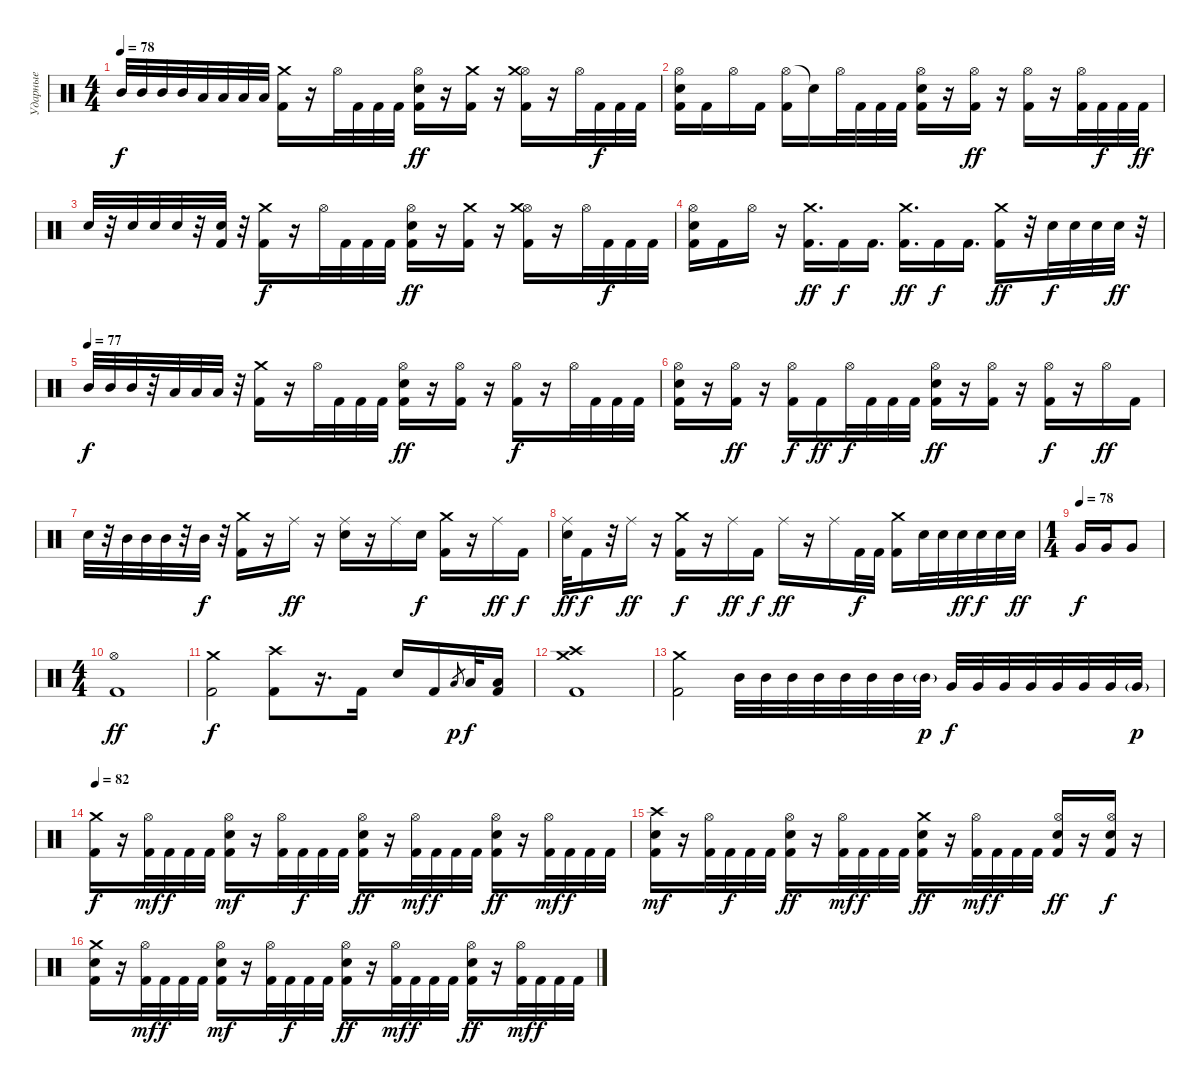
\track ("Ударные" "Ударные") {instrument percussion}
\staff {score}
\articulation defaults
\ts (4 4)
\tempo 78
\clef neutral
\ks c "Mid Tom (hit)".32{dy f} "Mid Tom (hit)".32 "Mid Tom (hit)".32 "Mid Tom (hit)".32 "Low Tom (hit)".32 "Low Tom (hit)".32 "Low Tom (hit)".32 "Low Tom (hit)".32
("Crash medium (hit)" "Kick (hit) 2").16 r.16 "Hi-Hat (open)".32 "Kick (hit) 2".32 "Kick (hit) 2".32 "Kick (hit) 2".32 ("Hi-Hat (open)" "Electric Snare (hit)" "Kick (hit) 2").16{dy ff} r.16 ("Crash medium (hit)" "Kick (hit) 2").16 r.16 ("Hi-Hat (open)" "Crash medium (hit)" "Kick (hit) 2").16 r.16 "Hi-Hat (open)".32 "Kick (hit) 2".32{dy f} "Kick (hit) 2".32 "Kick (hit) 2".32 |
("Hi-Hat (open)" "Electric Snare (hit)" "Kick (hit) 2").16 "Kick (hit) 2".16 "Hi-Hat (open)".16 "Kick (hit) 2".16 ("Hi-Hat (open)" "Kick (hit) 2").16 "Snare (hit)"{t}.16 "Hi-Hat (open)".32 "Kick (hit) 2".32 "Kick (hit) 2".32 "Kick (hit) 2".32 ("Hi-Hat (open)" "Electric Snare (hit)" "Kick (hit) 2").16 r.16 ("Hi-Hat (open)" "Kick (hit) 2").16{dy ff} r.16 ("Hi-Hat (open)" "Kick (hit) 2").16 r.16 ("Hi-Hat (open)" "Kick (hit) 2").32 "Kick (hit) 2".32{dy f} "Kick (hit) 2".32 "Kick (hit) 2".32{dy ff} |
"Electric Snare (hit)".32 r.32 "Electric Snare (hit)".32 "Electric Snare (hit)".32 "Electric Snare (hit)".32 r.32 ("Electric Snare (hit)" "Kick (hit) 2").32 r.32 ("Crash medium (hit)" "Kick (hit) 2").16{dy f} r.16 "Hi-Hat (open)".32 "Kick (hit) 2".32 "Kick (hit) 2".32 "Kick (hit) 2".32 ("Hi-Hat (open)" "Electric Snare (hit)" "Kick (hit) 2").16{dy ff} r.16 ("Crash medium (hit)" "Kick (hit) 2").16 r.16 ("Hi-Hat (open)" "Crash medium (hit)" "Kick (hit) 2").16 r.16 "Hi-Hat (open)".32 "Kick (hit) 2".32{dy f} "Kick (hit) 2".32 "Kick (hit) 2".32 |
("Hi-Hat (open)" "Electric Snare (hit)" "Kick (hit) 2").16 "Kick (hit) 2".16 "Hi-Hat (open)".16 r.16 ("Crash medium (hit)" "Kick (hit) 2").16{d dy ff} "Kick (hit) 2".16{dy f} "Kick (hit) 2".16{d} ("Crash medium (hit)" "Kick (hit) 2").16{d dy ff} "Kick (hit) 2".16{dy f} "Kick (hit) 2".16{d} ("Crash medium (hit)" "Kick (hit) 2").16{dy ff} r.32 "Electric Snare (hit)".32{dy f} "Electric Snare (hit)".32 "Electric Snare (hit)".32 "Electric Snare (hit)".32{dy ff} r.32 |
\tempo (77)
"Mid Tom (hit)".32{dy f} "Mid Tom (hit)".32 "Mid Tom (hit)".32 r.32 "Low Tom (hit)".32 "Low Tom (hit)".32 "Low Tom (hit)".32 r.32 ("Crash medium (hit)" "Kick (hit) 2").16 r.16 "Hi-Hat (open)".32 "Kick (hit) 2".32 "Kick (hit) 2".32 "Kick (hit) 2".32 ("Hi-Hat (open)" "Electric Snare (hit)" "Kick (hit) 2").16{dy ff} r.16 ("Hi-Hat (open)" "Kick (hit) 2").16 r.16 ("Hi-Hat (open)" "Kick (hit) 2").16{dy f} r.16 "Hi-Hat (open)".32 "Kick (hit) 2".32 "Kick (hit) 2".32 "Kick (hit) 2".32 |
("Hi-Hat (open)" "Electric Snare (hit)" "Kick (hit) 2").16 r.16 ("Hi-Hat (open)" "Kick (hit) 2").16{dy ff} r.16 ("Hi-Hat (open)" "Kick (hit) 2").16{dy f} "Kick (hit) 2".16{dy ff} "Hi-Hat (open)".32{dy f} "Kick (hit) 2".32 "Kick (hit) 2".32 "Kick (hit) 2".32 ("Hi-Hat (open)" "Electric Snare (hit)" "Kick (hit) 2").16{dy ff} r.16 ("Hi-Hat (open)" "Kick (hit) 2").16 r.16 ("Hi-Hat (open)" "Kick (hit) 2").16{dy f} r.16 "Hi-Hat (open)".16{dy ff} "Kick (hit) 2".16 |
"Electric Snare (hit)".32 r.32 "Mid Tom (hit)".32 "Mid Tom (hit)".32 "Mid Tom (hit)".32 r.32 "Mid Tom (hit)".32{dy f} r.32 ("Crash medium (hit)" "Kick (hit) 2").16 r.16 "Ride (middle)".16{dy ff} r.16 ("Ride (middle)" "Electric Snare (hit)").16 r.16 "Ride (middle)".16 "Electric Snare (hit)".16{dy f} ("Crash medium (hit)" "Kick (hit) 2").16 r.16 "Ride (middle)".16{dy ff} "Kick (hit) 2".16{dy f} |
("Ride (middle)" "Electric Snare (hit)").32{dy ff} "Kick (hit) 2".16{dy f} r.32 "Ride (middle)".16{dy ff} r.16 ("Crash medium (hit)" "Kick (hit) 2").16{dy f} r.16 "Ride (middle)".16{dy ff} "Kick (hit) 2".16{dy f} "Ride (middle)".16{dy ff} r.16 "Ride (middle)".16 "Kick (hit) 2".32{dy f} "Kick (hit) 2".32 ("Crash medium (hit)" "Kick (hit) 2").16 "Electric Snare (hit)".32 "Electric Snare (hit)".32 "Electric Snare (hit)".32{dy ff} "Electric Snare (hit)".32{dy f} "Electric Snare (hit)".32 "Electric Snare (hit)".32{dy ff} |
\ts (1 4)
\tempo (78)
"Very Low Tom (hit)".16{dy f} "Very Low Tom (hit)".16 "Very Low Tom (hit)".8 |
\ts (4 4)
("Hi-Hat (open)" "Kick (hit) 2").1{dy ff} |
("Crash medium (hit)" "Kick (hit) 2").2{dy f} ("Crash high (hit)" "Kick (hit) 2").8 r.16{d} "Kick (hit) 2".16 "Electric Snare (hit)".16 "Kick (hit) 2".16 "Low Tom (hit)".8{gr dy p} "Low Tom (hit)".32{dy f} ("Low Floor Tom (hit)" "Kick (hit) 2").16 |
("Crash medium (hit)" "Crash high (hit)" "Kick (hit) 2").1 |
("Crash medium (hit)" "Kick (hit) 2").2 "Mid Tom (hit)".32 "Mid Tom (hit)".32 "Mid Tom (hit)".32 "Mid Tom (hit)".32 "Mid Tom (hit)".32 "Mid Tom (hit)".32 "Mid Tom (hit)".32 "Mid Tom (hit)"{g}.32{dy p} "Very Low Tom (hit)".32{dy f} "Very Low Tom (hit)".32 "Very Low Tom (hit)".32 "Very Low Tom (hit)".32 "Very Low Tom (hit)".32 "Very Low Tom (hit)".32 "Very Low Tom (hit)".32 "Very Low Tom (hit)"{g}.32{dy p} |
\tempo 82
("Crash medium (hit)" "Kick (hit) 2").16{dy f} r.16 ("Hi-Hat (open)" "Kick (hit) 2").32{dy mf} "Kick (hit) 2".32{dy f} "Kick (hit) 2".32 "Kick (hit) 2".32 ("Hi-Hat (open)" "Electric Snare (hit)" "Kick (hit) 2").16{dy mf} r.16 ("Hi-Hat (open)" "Kick (hit) 2").32 "Kick (hit) 2".32{dy f} "Kick (hit) 2".32 "Kick (hit) 2".32 ("Hi-Hat (open)" "Electric Snare (hit)" "Kick (hit) 2").16{dy ff} r.16 ("Hi-Hat (open)" "Kick (hit) 2").32{dy mf} "Kick (hit) 2".32{dy f} "Kick (hit) 2".32 "Kick (hit) 2".32 ("Hi-Hat (open)" "Electric Snare (hit)" "Kick (hit) 2").16{dy ff} r.16 ("Hi-Hat (open)" "Kick (hit) 2").32{dy mf} "Kick (hit) 2".32{dy f} "Kick (hit) 2".32 "Kick (hit) 2".32 |
("Crash high (hit)" "Electric Snare (hit)" "Kick (hit) 2").16{dy mf} r.16 ("Hi-Hat (open)" "Kick (hit) 2").32 "Kick (hit) 2".32{dy f} "Kick (hit) 2".32 "Kick (hit) 2".32 ("Hi-Hat (open)" "Electric Snare (hit)" "Kick (hit) 2").16{dy ff} r.16 ("Hi-Hat (open)" "Kick (hit) 2").32{dy mf} "Kick (hit) 2".32{dy f} "Kick (hit) 2".32 "Kick (hit) 2".32 ("Crash medium (hit)" "Electric Snare (hit)" "Kick (hit) 2").16{dy ff} r.16 ("Hi-Hat (open)" "Kick (hit) 2").32{dy mf} "Kick (hit) 2".32{dy f} "Kick (hit) 2".32 "Kick (hit) 2".32 ("Hi-Hat (open)" "Electric Snare (hit)" "Kick (hit) 2").16{dy ff} r.16 ("Hi-Hat (open)" "Electric Snare (hit)" "Kick (hit) 2").16{dy f} r.16 |
("Crash medium (hit)" "Electric Snare (hit)" "Kick (hit) 2").16 r.16 ("Hi-Hat (open)" "Kick (hit) 2").32{dy mf} "Kick (hit) 2".32{dy f} "Kick (hit) 2".32 "Kick (hit) 2".32 ("Hi-Hat (open)" "Electric Snare (hit)" "Kick (hit) 2").16{dy mf} r.16 ("Hi-Hat (open)" "Kick (hit) 2").32 "Kick (hit) 2".32{dy f} "Kick (hit) 2".32 "Kick (hit) 2".32 ("Hi-Hat (open)" "Electric Snare (hit)" "Kick (hit) 2").16{dy ff} r.16 ("Hi-Hat (open)" "Kick (hit) 2").32{dy mf} "Kick (hit) 2".32{dy f} "Kick (hit) 2".32 "Kick (hit) 2".32 ("Hi-Hat (open)" "Electric Snare (hit)" "Kick (hit) 2").16{dy ff} r.16 ("Hi-Hat (open)" "Kick (hit) 2").32{dy mf} "Kick (hit) 2".32{dy f} "Kick (hit) 2".32 "Kick (hit) 2".32
